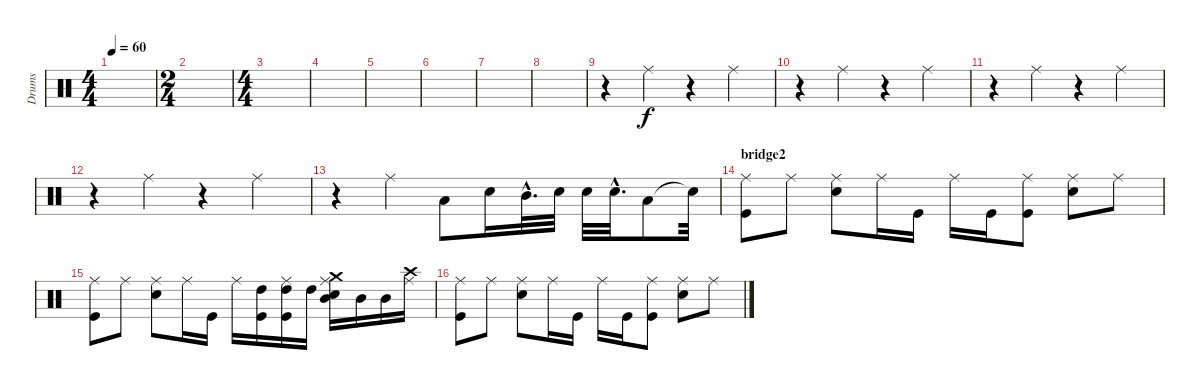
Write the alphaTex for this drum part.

\track ("Drums" "Drums") {instrument percussion}
\staff {score}
\articulation defaults
\ts (4 4)
\tempo 60
\clef neutral
\ks c
|
\ts (2 4)
|
\ts (4 4)
|
|
|
|
|
|
r.4 "Ride (middle)".4 r.4 "Ride (middle)".4 |
r.4 "Ride (middle)".4 r.4 "Ride (middle)".4 |
r.4 "Ride (middle)".4 r.4 "Ride (middle)".4 |
r.4 "Ride (middle)".4 r.4 "Ride (middle)".4 |
r.4 "Ride (middle)".4 "Low Tom (hit)".8 "Snare (hit) 2".16 "Mid Tom (hit)"{hac}.32{d} "Snare (hit) 2".32 "Snare (hit) 2".32 "Snare (hit) 2"{hac}.32{d} "Low Tom (hit)".8 "Snare (hit)"{t}.32 |
\section ("" "bridge2")
("Ride (middle)" "Kick (hit)").8 "Ride (middle)".8 ("Ride (middle)" "Snare (hit) 2").8 "Ride (middle)".16 "Kick (hit)".16 "Ride (middle)".16 "Kick (hit)".16 ("Ride (middle)" "Kick (hit)").8 ("Ride (middle)" "Snare (hit) 2").8 "Ride (middle)".8 |
("Ride (middle)" "Kick (hit)").8 "Ride (middle)".8 ("Ride (middle)" "Snare (hit) 2").8 "Ride (middle)".16 "Kick (hit)".16 "Ride (middle)".16 ("Kick (hit)" "High Tom (hit)").16 ("Ride (middle)" "Kick (hit)" "High Tom (hit)").16 "High Tom (hit)".16 ("Ride (middle)" "Crash medium (hit)" "Snare (hit) 2" "Mid Tom (hit)").16 "Mid Tom (hit)".16 "Mid Tom (hit)".16 ("Ride (middle)" "Crash high (hit)").16 |
("Ride (middle)" "Kick (hit)").8 "Ride (middle)".8 ("Ride (middle)" "Snare (hit) 2").8 "Ride (middle)".16 "Kick (hit)".16 "Ride (middle)".16 "Kick (hit)".16 ("Ride (middle)" "Kick (hit)").8 ("Ride (middle)" "Snare (hit) 2").8 "Ride (middle)".8
